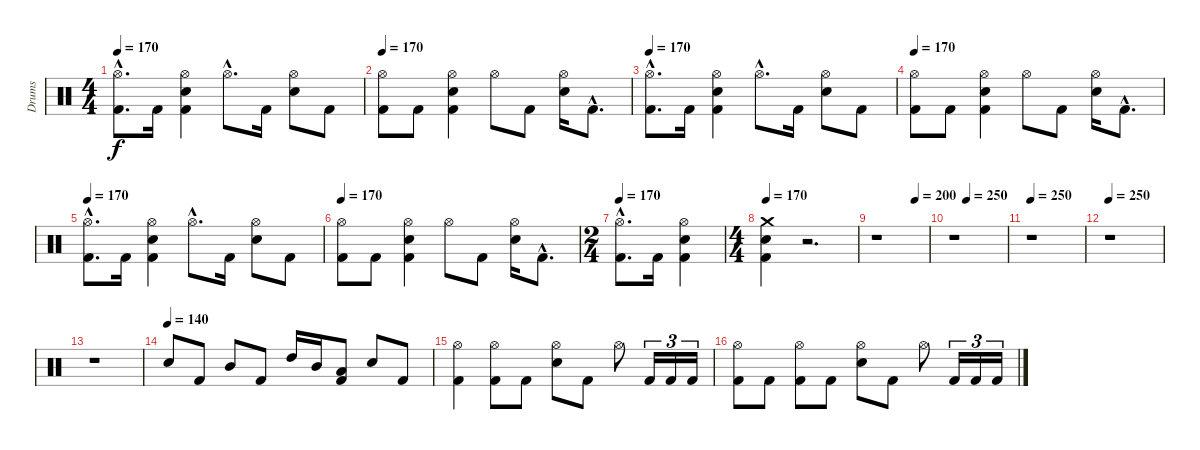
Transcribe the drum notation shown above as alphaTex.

\track ("Drums" "Drums") {instrument percussion}
\staff {score}
\articulation defaults
\ts (4 4)
\tempo 170
\clef neutral
\ks c
("Hi-Hat (open)"{hac} "Kick (hit) 2"{hac}).8{d dy f} "Kick (hit) 2".16 ("Hi-Hat (open)" "Electric Snare (hit)" "Kick (hit) 2").4 "Hi-Hat (open)"{hac}.8{d} "Kick (hit) 2".16 ("Hi-Hat (open)" "Electric Snare (hit)").8 "Kick (hit) 2".8 |
\tempo 170
("Hi-Hat (open)" "Kick (hit) 2").8 "Kick (hit) 2".8 ("Hi-Hat (open)" "Electric Snare (hit)" "Kick (hit) 2").4 "Hi-Hat (open)".8 "Kick (hit) 2".8 ("Electric Snare (hit)" "Hi-Hat (open)").16 "Kick (hit) 2"{hac}.8{d} |
\tempo 170
("Hi-Hat (open)"{hac} "Kick (hit) 2"{hac}).8{d} "Kick (hit) 2".16 ("Hi-Hat (open)" "Electric Snare (hit)" "Kick (hit) 2").4 "Hi-Hat (open)"{hac}.8{d} "Kick (hit) 2".16 ("Hi-Hat (open)" "Electric Snare (hit)").8 "Kick (hit) 2".8 |
\tempo 170
("Hi-Hat (open)" "Kick (hit) 2").8 "Kick (hit) 2".8 ("Hi-Hat (open)" "Electric Snare (hit)" "Kick (hit) 2").4 "Hi-Hat (open)".8 "Kick (hit) 2".8 ("Electric Snare (hit)" "Hi-Hat (open)").16 "Kick (hit) 2"{hac}.8{d} |
\tempo 170
("Hi-Hat (open)"{hac} "Kick (hit) 2"{hac}).8{d} "Kick (hit) 2".16 ("Hi-Hat (open)" "Electric Snare (hit)" "Kick (hit) 2").4 "Hi-Hat (open)"{hac}.8{d} "Kick (hit) 2".16 ("Hi-Hat (open)" "Electric Snare (hit)").8 "Kick (hit) 2".8 |
\tempo 170
("Hi-Hat (open)" "Kick (hit) 2").8 "Kick (hit) 2".8 ("Hi-Hat (open)" "Electric Snare (hit)" "Kick (hit) 2").4 "Hi-Hat (open)".8 "Kick (hit) 2".8 ("Electric Snare (hit)" "Hi-Hat (open)").16 "Kick (hit) 2"{hac}.8{d} |
\ts (2 4)
\tempo 170
("Hi-Hat (open)"{hac} "Kick (hit) 2"{hac}).8{d} "Kick (hit) 2".16 ("Hi-Hat (open)" "Electric Snare (hit)" "Kick (hit) 2").4 |
\ts (4 4)
\tempo 170
("Crash medium (hit)" "Electric Snare (hit)" "Kick (hit) 2").4 r.2{d} |
\tempo (200 0.75)
r.1 |
\tempo (250 0.25)
r.1 |
\tempo 250
r.1 |
\tempo 250
r.1 |
r.1 |
\tempo (140)
"Electric Snare (hit)".8 "Kick (hit) 2".8 "Mid Tom (hit)".8 "Kick (hit) 2".8 "High Tom (hit)".16 "Mid Tom (hit)".16 ("Kick (hit) 2" "Low Tom (hit)").8 "Electric Snare (hit)".8 "Kick (hit) 2".8 |
("Hi-Hat (open)" "Kick (hit) 2").4 ("Hi-Hat (open)" "Kick (hit) 2").8 "Kick (hit) 2".8 ("Hi-Hat (open)" "Electric Snare (hit)").8 "Kick (hit) 2".8 "Hi-Hat (open)".8 "Kick (hit) 2".16{tu (3 2)} "Kick (hit) 2".16{tu (3 2)} "Kick (hit) 2".16{tu (3 2)} |
("Kick (hit) 2" "Hi-Hat (open)").8 "Kick (hit) 2".8 ("Kick (hit) 2" "Hi-Hat (open)").8 "Kick (hit) 2".8 ("Electric Snare (hit)" "Hi-Hat (open)").8 "Kick (hit) 2".8 "Hi-Hat (open)".8 "Kick (hit) 2".16{tu (3 2)} "Kick (hit) 2".16{tu (3 2)} "Kick (hit) 2".16{tu (3 2)}
